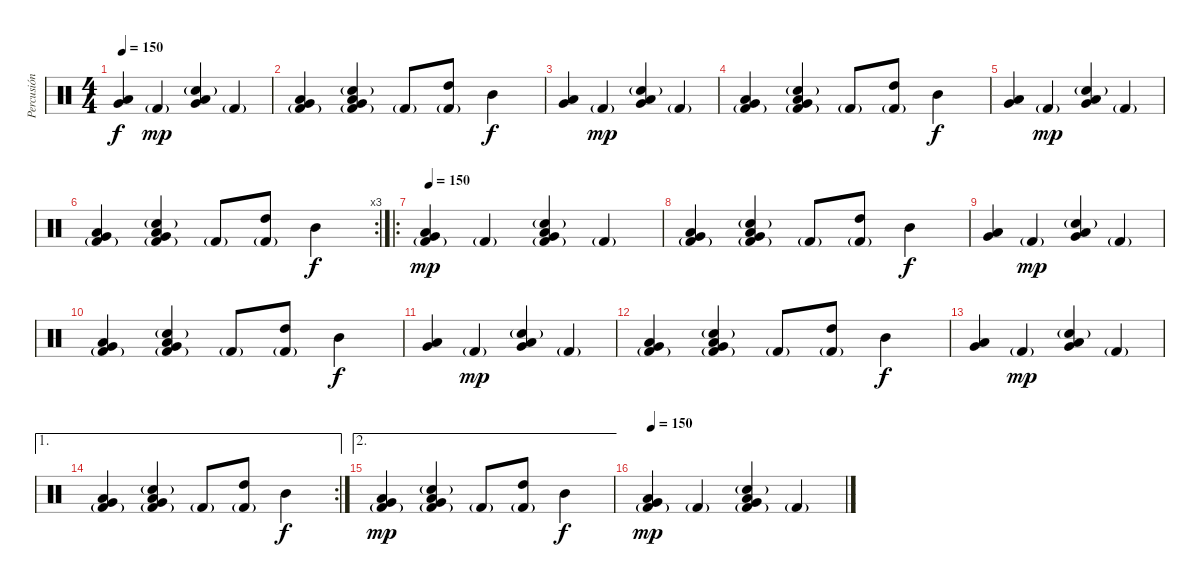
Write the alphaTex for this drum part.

\track ("Percusión" "Percusión") {instrument percussion}
\staff {score}
\articulation defaults
\ts (4 4)
\tempo 150
\clef neutral
\ks c
("Very Low Tom (hit)" "Low Floor Tom (hit)").4{dy f} "Kick (hit) 2"{g}.4{dy mp} ("Very Low Tom (hit)" "Low Tom (hit)" "Electric Snare (hit)"{g}).4 "Kick (hit) 2"{g}.4 |
("Kick (hit) 2"{g} "Very Low Tom (hit)" "Low Floor Tom (hit)").4 ("Kick (hit) 2"{g} "Very Low Tom (hit)" "Low Tom (hit)" "Electric Snare (hit)"{g}).4 "Kick (hit) 2"{g}.8 ("Kick (hit) 2"{g} "High Tom (hit)").8 "Mid Tom (hit)".4{dy f} |
("Very Low Tom (hit)" "Low Floor Tom (hit)").4 "Kick (hit) 2"{g}.4{dy mp} ("Very Low Tom (hit)" "Low Tom (hit)" "Electric Snare (hit)"{g}).4 "Kick (hit) 2"{g}.4 |
("Kick (hit) 2"{g} "Very Low Tom (hit)" "Low Floor Tom (hit)").4 ("Kick (hit) 2"{g} "Very Low Tom (hit)" "Low Tom (hit)" "Electric Snare (hit)"{g}).4 "Kick (hit) 2"{g}.8 ("Kick (hit) 2"{g} "High Tom (hit)").8 "Mid Tom (hit)".4{dy f} |
("Very Low Tom (hit)" "Low Floor Tom (hit)").4 "Kick (hit) 2"{g}.4{dy mp} ("Very Low Tom (hit)" "Low Tom (hit)" "Electric Snare (hit)"{g}).4 "Kick (hit) 2"{g}.4 |
\rc 3
("Kick (hit) 2"{g} "Very Low Tom (hit)" "Low Floor Tom (hit)").4 ("Kick (hit) 2"{g} "Very Low Tom (hit)" "Low Tom (hit)" "Electric Snare (hit)"{g}).4 "Kick (hit) 2"{g}.8 ("Kick (hit) 2"{g} "High Tom (hit)").8 "Mid Tom (hit)".4{dy f} |
\ro
\tempo 150
("Kick (hit) 2"{g} "Very Low Tom (hit)" "Low Floor Tom (hit)").4{dy mp} "Kick (hit) 2"{g}.4 ("Kick (hit) 2"{g} "Very Low Tom (hit)" "Low Tom (hit)" "Electric Snare (hit)"{g}).4 "Kick (hit) 2"{g}.4 |
("Kick (hit) 2"{g} "Very Low Tom (hit)" "Low Floor Tom (hit)").4 ("Kick (hit) 2"{g} "Very Low Tom (hit)" "Low Tom (hit)" "Electric Snare (hit)"{g}).4 "Kick (hit) 2"{g}.8 ("Kick (hit) 2"{g} "High Tom (hit)").8 "Mid Tom (hit)".4{dy f} |
("Very Low Tom (hit)" "Low Floor Tom (hit)").4 "Kick (hit) 2"{g}.4{dy mp} ("Very Low Tom (hit)" "Low Tom (hit)" "Electric Snare (hit)"{g}).4 "Kick (hit) 2"{g}.4 |
("Kick (hit) 2"{g} "Very Low Tom (hit)" "Low Floor Tom (hit)").4 ("Kick (hit) 2"{g} "Very Low Tom (hit)" "Low Tom (hit)" "Electric Snare (hit)"{g}).4 "Kick (hit) 2"{g}.8 ("Kick (hit) 2"{g} "High Tom (hit)").8 "Mid Tom (hit)".4{dy f} |
("Very Low Tom (hit)" "Low Floor Tom (hit)").4 "Kick (hit) 2"{g}.4{dy mp} ("Very Low Tom (hit)" "Low Tom (hit)" "Electric Snare (hit)"{g}).4 "Kick (hit) 2"{g}.4 |
("Kick (hit) 2"{g} "Very Low Tom (hit)" "Low Floor Tom (hit)").4 ("Kick (hit) 2"{g} "Very Low Tom (hit)" "Low Tom (hit)" "Electric Snare (hit)"{g}).4 "Kick (hit) 2"{g}.8 ("Kick (hit) 2"{g} "High Tom (hit)").8 "Mid Tom (hit)".4{dy f} |
("Very Low Tom (hit)" "Low Floor Tom (hit)").4 "Kick (hit) 2"{g}.4{dy mp} ("Very Low Tom (hit)" "Low Tom (hit)" "Electric Snare (hit)"{g}).4 "Kick (hit) 2"{g}.4 |
\ae 1
\rc 2
("Kick (hit) 2"{g} "Very Low Tom (hit)" "Low Floor Tom (hit)").4 ("Kick (hit) 2"{g} "Very Low Tom (hit)" "Low Tom (hit)" "Electric Snare (hit)"{g}).4 "Kick (hit) 2"{g}.8 ("Kick (hit) 2"{g} "High Tom (hit)").8 "Mid Tom (hit)".4{dy f} |
\ae 2
("Kick (hit) 2"{g} "Very Low Tom (hit)" "Low Floor Tom (hit)").4{dy mp} ("Kick (hit) 2"{g} "Very Low Tom (hit)" "Low Tom (hit)" "Electric Snare (hit)"{g}).4 "Kick (hit) 2"{g}.8 ("Kick (hit) 2"{g} "High Tom (hit)").8 "Mid Tom (hit)".4{dy f} |
\tempo 150
("Kick (hit) 2"{g} "Very Low Tom (hit)" "Low Floor Tom (hit)").4{dy mp} "Kick (hit) 2"{g}.4 ("Kick (hit) 2"{g} "Very Low Tom (hit)" "Low Tom (hit)" "Electric Snare (hit)"{g}).4 "Kick (hit) 2"{g}.4
